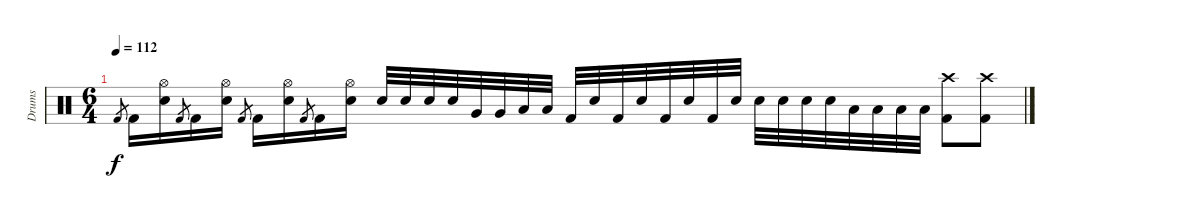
\track ("Drums" "Drums") {instrument percussion}
\staff {score}
\articulation defaults
\ts (6 4)
\tempo 112
\clef neutral
\ks c "Kick (hit) 2".8{gr dy f} "Kick (hit) 2".16
("Hi-Hat (open)" "Snare (hit) 2").16 "Kick (hit) 2".8{gr} "Kick (hit) 2".16 ("Hi-Hat (open)" "Snare (hit) 2").16 "Kick (hit) 2".8{gr} "Kick (hit) 2".16 ("Hi-Hat (open)" "Snare (hit) 2").16 "Kick (hit) 2".8{gr} "Kick (hit) 2".16 ("Hi-Hat (open)" "Snare (hit) 2").16 "Snare (hit) 2".32 "Snare (hit) 2".32 "Snare (hit) 2".32 "Snare (hit) 2".32 "Very Low Tom (hit)".32 "Very Low Tom (hit)".32 "Low Floor Tom (hit)".32 "Low Floor Tom (hit)".32 "Kick (hit) 2".32 "Snare (hit) 2".32 "Kick (hit) 2".32 "Snare (hit) 2".32 "Kick (hit) 2".32 "Snare (hit) 2".32 "Kick (hit) 2".32 "Snare (hit) 2".32 "Snare (hit) 2".32 "Snare (hit) 2".32 "Snare (hit) 2".32 "Snare (hit) 2".32 "Low Tom (hit)".32 "Low Tom (hit)".32 "Low Tom (hit)".32 "Low Tom (hit)".32 ("Crash high (hit)" "Kick (hit) 2").8 ("Crash high (hit)" "Kick (hit) 2").8
